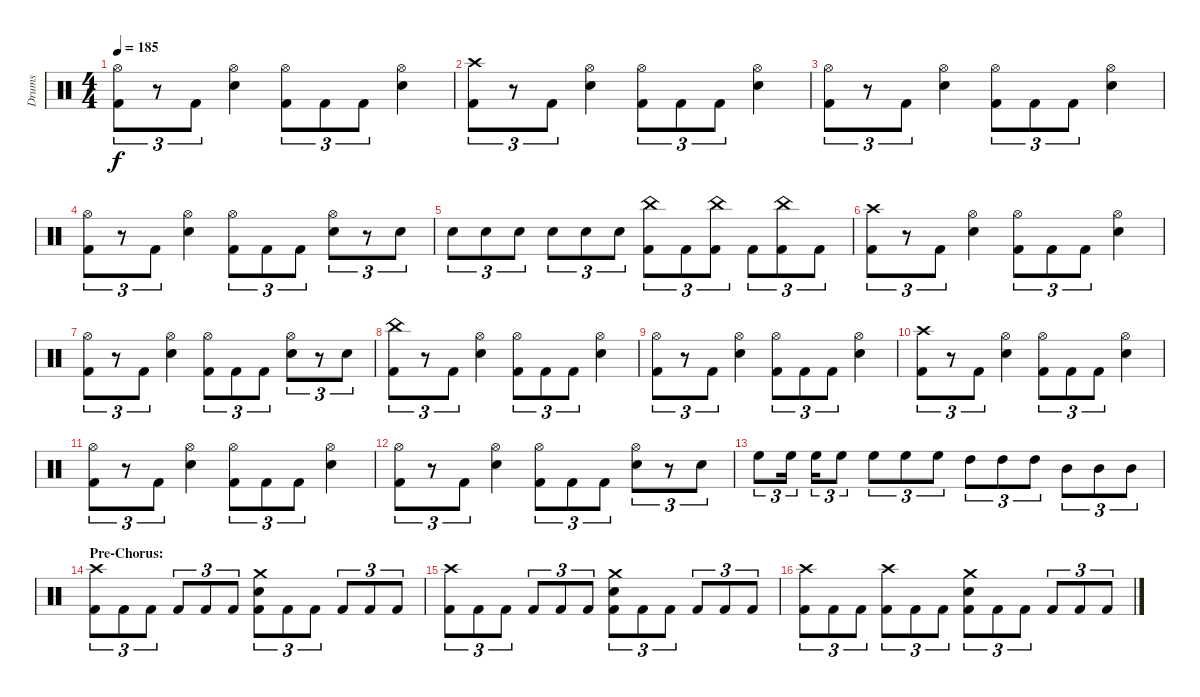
\track ("Drums" "Drums") {instrument percussion}
\staff {score}
\articulation defaults
\ts (4 4)
\tempo 185
\clef neutral
\ks c
("Hi-Hat (open)" "Kick (hit) 2").8{tu (3 2) dy f} r.8{tu (3 2)} "Kick (hit) 2".8{tu (3 2)} ("Hi-Hat (open)" "Electric Snare (hit)").4 ("Hi-Hat (open)" "Kick (hit) 2").8{tu (3 2)} "Kick (hit) 2".8{tu (3 2)} "Kick (hit) 2".8{tu (3 2)} ("Hi-Hat (open)" "Electric Snare (hit)").4 |
("Crash high (hit)" "Kick (hit) 2").8{tu (3 2)} r.8{tu (3 2)} "Kick (hit) 2".8{tu (3 2)} ("Hi-Hat (open)" "Electric Snare (hit)").4 ("Hi-Hat (open)" "Kick (hit) 2").8{tu (3 2)} "Kick (hit) 2".8{tu (3 2)} "Kick (hit) 2".8{tu (3 2)} ("Hi-Hat (open)" "Electric Snare (hit)").4 |
("Hi-Hat (open)" "Kick (hit) 2").8{tu (3 2)} r.8{tu (3 2)} "Kick (hit) 2".8{tu (3 2)} ("Hi-Hat (open)" "Electric Snare (hit)").4 ("Hi-Hat (open)" "Kick (hit) 2").8{tu (3 2)} "Kick (hit) 2".8{tu (3 2)} "Kick (hit) 2".8{tu (3 2)} ("Hi-Hat (open)" "Electric Snare (hit)").4 |
("Hi-Hat (open)" "Kick (hit) 2").8{tu (3 2)} r.8{tu (3 2)} "Kick (hit) 2".8{tu (3 2)} ("Hi-Hat (open)" "Electric Snare (hit)").4 ("Hi-Hat (open)" "Kick (hit) 2").8{tu (3 2)} "Kick (hit) 2".8{tu (3 2)} "Kick (hit) 2".8{tu (3 2)} ("Hi-Hat (open)" "Electric Snare (hit)").8{tu (3 2)} r.8{tu (3 2)} "Electric Snare (hit)".8{tu (3 2)} |
"Electric Snare (hit)".8{tu (3 2)} "Electric Snare (hit)".8{tu (3 2)} "Electric Snare (hit)".8{tu (3 2)} "Electric Snare (hit)".8{tu (3 2)} "Electric Snare (hit)".8{tu (3 2)} "Electric Snare (hit)".8{tu (3 2)} ("China (hit)" "Kick (hit) 2").8{tu (3 2)} "Kick (hit) 2".8{tu (3 2)} ("China (hit)" "Kick (hit) 2").8{tu (3 2)} "Kick (hit) 2".8{tu (3 2)} ("China (hit)" "Kick (hit) 2").8{tu (3 2)} "Kick (hit) 2".8{tu (3 2)} |
("Crash high (hit)" "Kick (hit) 2").8{tu (3 2)} r.8{tu (3 2)} "Kick (hit) 2".8{tu (3 2)} ("Hi-Hat (open)" "Electric Snare (hit)").4 ("Hi-Hat (open)" "Kick (hit) 2").8{tu (3 2)} "Kick (hit) 2".8{tu (3 2)} "Kick (hit) 2".8{tu (3 2)} ("Hi-Hat (open)" "Electric Snare (hit)").4 |
("Hi-Hat (open)" "Kick (hit) 2").8{tu (3 2)} r.8{tu (3 2)} "Kick (hit) 2".8{tu (3 2)} ("Hi-Hat (open)" "Electric Snare (hit)").4 ("Hi-Hat (open)" "Kick (hit) 2").8{tu (3 2)} "Kick (hit) 2".8{tu (3 2)} "Kick (hit) 2".8{tu (3 2)} ("Hi-Hat (open)" "Electric Snare (hit)").8{tu (3 2)} r.8{tu (3 2)} "Electric Snare (hit)".8{tu (3 2)} |
("China (hit)" "Kick (hit) 2").8{tu (3 2)} r.8{tu (3 2)} "Kick (hit) 2".8{tu (3 2)} ("Hi-Hat (open)" "Electric Snare (hit)").4 ("Hi-Hat (open)" "Kick (hit) 2").8{tu (3 2)} "Kick (hit) 2".8{tu (3 2)} "Kick (hit) 2".8{tu (3 2)} ("Hi-Hat (open)" "Electric Snare (hit)").4 |
("Hi-Hat (open)" "Kick (hit) 2").8{tu (3 2)} r.8{tu (3 2)} "Kick (hit) 2".8{tu (3 2)} ("Hi-Hat (open)" "Electric Snare (hit)").4 ("Hi-Hat (open)" "Kick (hit) 2").8{tu (3 2)} "Kick (hit) 2".8{tu (3 2)} "Kick (hit) 2".8{tu (3 2)} ("Hi-Hat (open)" "Electric Snare (hit)").4 |
("Crash high (hit)" "Kick (hit) 2").8{tu (3 2)} r.8{tu (3 2)} "Kick (hit) 2".8{tu (3 2)} ("Hi-Hat (open)" "Electric Snare (hit)").4 ("Hi-Hat (open)" "Kick (hit) 2").8{tu (3 2)} "Kick (hit) 2".8{tu (3 2)} "Kick (hit) 2".8{tu (3 2)} ("Hi-Hat (open)" "Electric Snare (hit)").4 |
("Hi-Hat (open)" "Kick (hit) 2").8{tu (3 2)} r.8{tu (3 2)} "Kick (hit) 2".8{tu (3 2)} ("Hi-Hat (open)" "Electric Snare (hit)").4 ("Hi-Hat (open)" "Kick (hit) 2").8{tu (3 2)} "Kick (hit) 2".8{tu (3 2)} "Kick (hit) 2".8{tu (3 2)} ("Hi-Hat (open)" "Electric Snare (hit)").4 |
("Hi-Hat (open)" "Kick (hit) 2").8{tu (3 2)} r.8{tu (3 2)} "Kick (hit) 2".8{tu (3 2)} ("Hi-Hat (open)" "Electric Snare (hit)").4 ("Hi-Hat (open)" "Kick (hit) 2").8{tu (3 2)} "Kick (hit) 2".8{tu (3 2)} "Kick (hit) 2".8{tu (3 2)} ("Hi-Hat (open)" "Electric Snare (hit)").8{tu (3 2)} r.8{tu (3 2)} "Electric Snare (hit)".8{tu (3 2)} |
"High Floor Tom (hit)".8{tu (3 2)} "High Floor Tom (hit)".16{tu (3 2)} "High Floor Tom (hit)".16{tu (3 2)} "High Floor Tom (hit)".8{tu (3 2)} "High Floor Tom (hit)".8{tu (3 2)} "High Floor Tom (hit)".8{tu (3 2)} "High Floor Tom (hit)".8{tu (3 2)} "High Tom (hit)".8{tu (3 2)} "High Tom (hit)".8{tu (3 2)} "High Tom (hit)".8{tu (3 2)} "Mid Tom (hit)".8{tu (3 2)} "Mid Tom (hit)".8{tu (3 2)} "Mid Tom (hit)".8{tu (3 2)} |
\section ("" "Pre-Chorus:")
("Crash high (hit)" "Kick (hit) 2").8{tu (3 2)} "Kick (hit) 2".8{tu (3 2)} "Kick (hit) 2".8{tu (3 2)} "Kick (hit) 2".8{tu (3 2)} "Kick (hit) 2".8{tu (3 2)} "Kick (hit) 2".8{tu (3 2)} ("Crash medium (hit)" "Electric Snare (hit)" "Kick (hit) 2").8{tu (3 2)} "Kick (hit) 2".8{tu (3 2)} "Kick (hit) 2".8{tu (3 2)} "Kick (hit) 2".8{tu (3 2)} "Kick (hit) 2".8{tu (3 2)} "Kick (hit) 2".8{tu (3 2)} |
("Crash high (hit)" "Kick (hit) 2").8{tu (3 2)} "Kick (hit) 2".8{tu (3 2)} "Kick (hit) 2".8{tu (3 2)} "Kick (hit) 2".8{tu (3 2)} "Kick (hit) 2".8{tu (3 2)} "Kick (hit) 2".8{tu (3 2)} ("Crash medium (hit)" "Electric Snare (hit)" "Kick (hit) 2").8{tu (3 2)} "Kick (hit) 2".8{tu (3 2)} "Kick (hit) 2".8{tu (3 2)} "Kick (hit) 2".8{tu (3 2)} "Kick (hit) 2".8{tu (3 2)} "Kick (hit) 2".8{tu (3 2)} |
("Crash high (hit)" "Kick (hit) 2").8{tu (3 2)} "Kick (hit) 2".8{tu (3 2)} "Kick (hit) 2".8{tu (3 2)} ("Crash high (hit)" "Kick (hit) 2").8{tu (3 2)} "Kick (hit) 2".8{tu (3 2)} "Kick (hit) 2".8{tu (3 2)} ("Crash medium (hit)" "Electric Snare (hit)" "Kick (hit) 2").8{tu (3 2)} "Kick (hit) 2".8{tu (3 2)} "Kick (hit) 2".8{tu (3 2)} "Kick (hit) 2".8{tu (3 2)} "Kick (hit) 2".8{tu (3 2)} "Kick (hit) 2".8{tu (3 2)}
